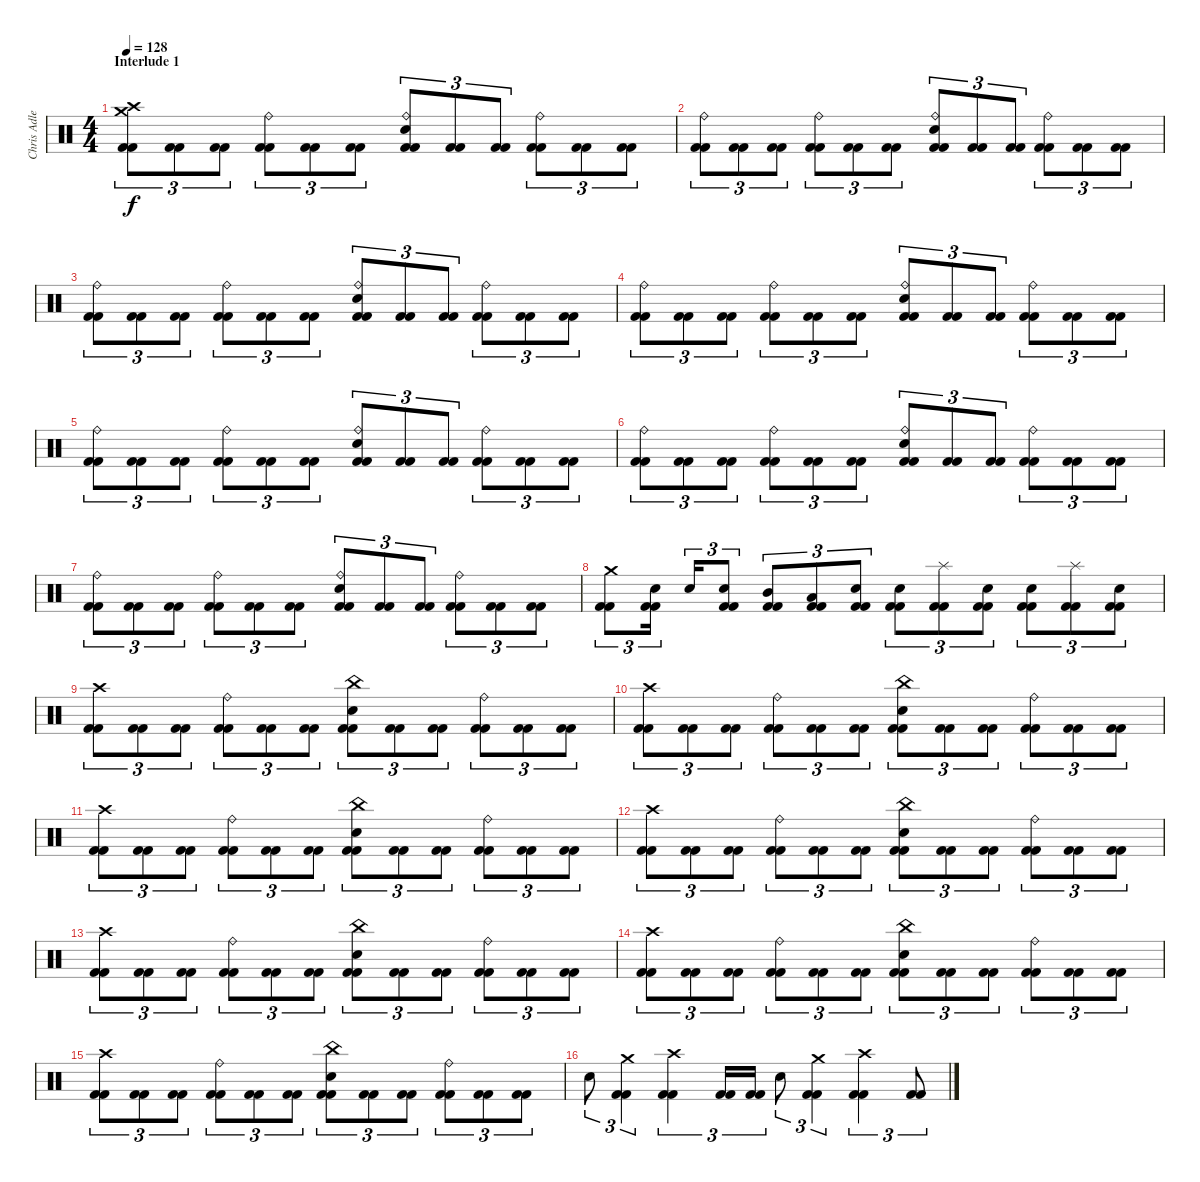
\track ("Chris Adler" "Chris Adle") {instrument percussion}
\staff {score}
\articulation defaults
\ts (4 4)
\section ("" "Interlude 1")
\tempo 128
\clef neutral
\ks c
("Crash medium (hit)" "Crash high (hit)" "Kick (hit) 2" "Kick (hit) 2").8{tu (3 2) dy f} ("Kick (hit) 2" "Kick (hit) 2").8{tu (3 2)} ("Kick (hit) 2" "Kick (hit) 2").8{tu (3 2)} ("Ride (bell)" "Kick (hit) 2" "Kick (hit) 2").8{tu (3 2)} ("Kick (hit) 2" "Kick (hit) 2").8{tu (3 2)} ("Kick (hit) 2" "Kick (hit) 2").8{tu (3 2)} ("Ride (bell)" "Electric Snare (hit)" "Kick (hit) 2" "Kick (hit) 2").8{tu (3 2)} ("Kick (hit) 2" "Kick (hit) 2").8{tu (3 2)} ("Kick (hit) 2" "Kick (hit) 2").8{tu (3 2)} ("Ride (bell)" "Kick (hit) 2" "Kick (hit) 2").8{tu (3 2)} ("Kick (hit) 2" "Kick (hit) 2").8{tu (3 2)} ("Kick (hit) 2" "Kick (hit) 2").8{tu (3 2)} |
("Ride (bell)" "Kick (hit) 2" "Kick (hit) 2").8{tu (3 2)} ("Kick (hit) 2" "Kick (hit) 2").8{tu (3 2)} ("Kick (hit) 2" "Kick (hit) 2").8{tu (3 2)} ("Ride (bell)" "Kick (hit) 2" "Kick (hit) 2").8{tu (3 2)} ("Kick (hit) 2" "Kick (hit) 2").8{tu (3 2)} ("Kick (hit) 2" "Kick (hit) 2").8{tu (3 2)} ("Ride (bell)" "Electric Snare (hit)" "Kick (hit) 2" "Kick (hit) 2").8{tu (3 2)} ("Kick (hit) 2" "Kick (hit) 2").8{tu (3 2)} ("Kick (hit) 2" "Kick (hit) 2").8{tu (3 2)} ("Ride (bell)" "Kick (hit) 2" "Kick (hit) 2").8{tu (3 2)} ("Kick (hit) 2" "Kick (hit) 2").8{tu (3 2)} ("Kick (hit) 2" "Kick (hit) 2").8{tu (3 2)} |
("Ride (bell)" "Kick (hit) 2" "Kick (hit) 2").8{tu (3 2)} ("Kick (hit) 2" "Kick (hit) 2").8{tu (3 2)} ("Kick (hit) 2" "Kick (hit) 2").8{tu (3 2)} ("Ride (bell)" "Kick (hit) 2" "Kick (hit) 2").8{tu (3 2)} ("Kick (hit) 2" "Kick (hit) 2").8{tu (3 2)} ("Kick (hit) 2" "Kick (hit) 2").8{tu (3 2)} ("Ride (bell)" "Electric Snare (hit)" "Kick (hit) 2" "Kick (hit) 2").8{tu (3 2)} ("Kick (hit) 2" "Kick (hit) 2").8{tu (3 2)} ("Kick (hit) 2" "Kick (hit) 2").8{tu (3 2)} ("Ride (bell)" "Kick (hit) 2" "Kick (hit) 2").8{tu (3 2)} ("Kick (hit) 2" "Kick (hit) 2").8{tu (3 2)} ("Kick (hit) 2" "Kick (hit) 2").8{tu (3 2)} |
("Ride (bell)" "Kick (hit) 2" "Kick (hit) 2").8{tu (3 2)} ("Kick (hit) 2" "Kick (hit) 2").8{tu (3 2)} ("Kick (hit) 2" "Kick (hit) 2").8{tu (3 2)} ("Ride (bell)" "Kick (hit) 2" "Kick (hit) 2").8{tu (3 2)} ("Kick (hit) 2" "Kick (hit) 2").8{tu (3 2)} ("Kick (hit) 2" "Kick (hit) 2").8{tu (3 2)} ("Ride (bell)" "Electric Snare (hit)" "Kick (hit) 2" "Kick (hit) 2").8{tu (3 2)} ("Kick (hit) 2" "Kick (hit) 2").8{tu (3 2)} ("Kick (hit) 2" "Kick (hit) 2").8{tu (3 2)} ("Ride (bell)" "Kick (hit) 2" "Kick (hit) 2").8{tu (3 2)} ("Kick (hit) 2" "Kick (hit) 2").8{tu (3 2)} ("Kick (hit) 2" "Kick (hit) 2").8{tu (3 2)} |
("Ride (bell)" "Kick (hit) 2" "Kick (hit) 2").8{tu (3 2)} ("Kick (hit) 2" "Kick (hit) 2").8{tu (3 2)} ("Kick (hit) 2" "Kick (hit) 2").8{tu (3 2)} ("Ride (bell)" "Kick (hit) 2" "Kick (hit) 2").8{tu (3 2)} ("Kick (hit) 2" "Kick (hit) 2").8{tu (3 2)} ("Kick (hit) 2" "Kick (hit) 2").8{tu (3 2)} ("Ride (bell)" "Electric Snare (hit)" "Kick (hit) 2" "Kick (hit) 2").8{tu (3 2)} ("Kick (hit) 2" "Kick (hit) 2").8{tu (3 2)} ("Kick (hit) 2" "Kick (hit) 2").8{tu (3 2)} ("Ride (bell)" "Kick (hit) 2" "Kick (hit) 2").8{tu (3 2)} ("Kick (hit) 2" "Kick (hit) 2").8{tu (3 2)} ("Kick (hit) 2" "Kick (hit) 2").8{tu (3 2)} |
("Ride (bell)" "Kick (hit) 2" "Kick (hit) 2").8{tu (3 2)} ("Kick (hit) 2" "Kick (hit) 2").8{tu (3 2)} ("Kick (hit) 2" "Kick (hit) 2").8{tu (3 2)} ("Ride (bell)" "Kick (hit) 2" "Kick (hit) 2").8{tu (3 2)} ("Kick (hit) 2" "Kick (hit) 2").8{tu (3 2)} ("Kick (hit) 2" "Kick (hit) 2").8{tu (3 2)} ("Ride (bell)" "Electric Snare (hit)" "Kick (hit) 2" "Kick (hit) 2").8{tu (3 2)} ("Kick (hit) 2" "Kick (hit) 2").8{tu (3 2)} ("Kick (hit) 2" "Kick (hit) 2").8{tu (3 2)} ("Ride (bell)" "Kick (hit) 2" "Kick (hit) 2").8{tu (3 2)} ("Kick (hit) 2" "Kick (hit) 2").8{tu (3 2)} ("Kick (hit) 2" "Kick (hit) 2").8{tu (3 2)} |
("Ride (bell)" "Kick (hit) 2" "Kick (hit) 2").8{tu (3 2)} ("Kick (hit) 2" "Kick (hit) 2").8{tu (3 2)} ("Kick (hit) 2" "Kick (hit) 2").8{tu (3 2)} ("Ride (bell)" "Kick (hit) 2" "Kick (hit) 2").8{tu (3 2)} ("Kick (hit) 2" "Kick (hit) 2").8{tu (3 2)} ("Kick (hit) 2" "Kick (hit) 2").8{tu (3 2)} ("Ride (bell)" "Electric Snare (hit)" "Kick (hit) 2" "Kick (hit) 2").8{tu (3 2)} ("Kick (hit) 2" "Kick (hit) 2").8{tu (3 2)} ("Kick (hit) 2" "Kick (hit) 2").8{tu (3 2)} ("Ride (bell)" "Kick (hit) 2" "Kick (hit) 2").8{tu (3 2)} ("Kick (hit) 2" "Kick (hit) 2").8{tu (3 2)} ("Kick (hit) 2" "Kick (hit) 2").8{tu (3 2)} |
("Crash medium (hit)" "Kick (hit) 2" "Kick (hit) 2").8{tu (3 2)} ("Electric Snare (hit)" "Kick (hit) 2" "Kick (hit) 2").16{tu (3 2) beam splitsecondary} "Electric Snare (hit)".16{tu (3 2)} ("Electric Snare (hit)" "Kick (hit) 2" "Kick (hit) 2").8{tu (3 2)} ("Mid Tom (hit)" "Kick (hit) 2" "Kick (hit) 2").8{tu (3 2)} ("Low Tom (hit)" "Kick (hit) 2" "Kick (hit) 2").8{tu (3 2)} ("Electric Snare (hit)" "Kick (hit) 2" "Kick (hit) 2").8{tu (3 2)} ("Electric Snare (hit)" "Kick (hit) 2" "Kick (hit) 2").8{tu (3 2)} ("Splash (hit)" "Kick (hit) 2" "Kick (hit) 2").8{tu (3 2)} ("Electric Snare (hit)" "Kick (hit) 2" "Kick (hit) 2").8{tu (3 2)} ("Electric Snare (hit)" "Kick (hit) 2" "Kick (hit) 2").8{tu (3 2)} ("Splash (hit)" "Kick (hit) 2" "Kick (hit) 2").8{tu (3 2)} ("Electric Snare (hit)" "Kick (hit) 2" "Kick (hit) 2").8{tu (3 2)} |
("Crash high (hit)" "Kick (hit) 2" "Kick (hit) 2").8{tu (3 2)} ("Kick (hit) 2" "Kick (hit) 2").8{tu (3 2)} ("Kick (hit) 2" "Kick (hit) 2").8{tu (3 2)} ("Ride (bell)" "Kick (hit) 2" "Kick (hit) 2").8{tu (3 2)} ("Kick (hit) 2" "Kick (hit) 2").8{tu (3 2)} ("Kick (hit) 2" "Kick (hit) 2").8{tu (3 2)} ("China (hit)" "Electric Snare (hit)" "Kick (hit) 2" "Kick (hit) 2").8{tu (3 2)} ("Kick (hit) 2" "Kick (hit) 2").8{tu (3 2)} ("Kick (hit) 2" "Kick (hit) 2").8{tu (3 2)} ("Ride (bell)" "Kick (hit) 2" "Kick (hit) 2").8{tu (3 2)} ("Kick (hit) 2" "Kick (hit) 2").8{tu (3 2)} ("Kick (hit) 2" "Kick (hit) 2").8{tu (3 2)} |
("Crash high (hit)" "Kick (hit) 2" "Kick (hit) 2").8{tu (3 2)} ("Kick (hit) 2" "Kick (hit) 2").8{tu (3 2)} ("Kick (hit) 2" "Kick (hit) 2").8{tu (3 2)} ("Ride (bell)" "Kick (hit) 2" "Kick (hit) 2").8{tu (3 2)} ("Kick (hit) 2" "Kick (hit) 2").8{tu (3 2)} ("Kick (hit) 2" "Kick (hit) 2").8{tu (3 2)} ("China (hit)" "Electric Snare (hit)" "Kick (hit) 2" "Kick (hit) 2").8{tu (3 2)} ("Kick (hit) 2" "Kick (hit) 2").8{tu (3 2)} ("Kick (hit) 2" "Kick (hit) 2").8{tu (3 2)} ("Ride (bell)" "Kick (hit) 2" "Kick (hit) 2").8{tu (3 2)} ("Kick (hit) 2" "Kick (hit) 2").8{tu (3 2)} ("Kick (hit) 2" "Kick (hit) 2").8{tu (3 2)} |
("Crash high (hit)" "Kick (hit) 2" "Kick (hit) 2").8{tu (3 2)} ("Kick (hit) 2" "Kick (hit) 2").8{tu (3 2)} ("Kick (hit) 2" "Kick (hit) 2").8{tu (3 2)} ("Ride (bell)" "Kick (hit) 2" "Kick (hit) 2").8{tu (3 2)} ("Kick (hit) 2" "Kick (hit) 2").8{tu (3 2)} ("Kick (hit) 2" "Kick (hit) 2").8{tu (3 2)} ("China (hit)" "Electric Snare (hit)" "Kick (hit) 2" "Kick (hit) 2").8{tu (3 2)} ("Kick (hit) 2" "Kick (hit) 2").8{tu (3 2)} ("Kick (hit) 2" "Kick (hit) 2").8{tu (3 2)} ("Ride (bell)" "Kick (hit) 2" "Kick (hit) 2").8{tu (3 2)} ("Kick (hit) 2" "Kick (hit) 2").8{tu (3 2)} ("Kick (hit) 2" "Kick (hit) 2").8{tu (3 2)} |
("Crash high (hit)" "Kick (hit) 2" "Kick (hit) 2").8{tu (3 2)} ("Kick (hit) 2" "Kick (hit) 2").8{tu (3 2)} ("Kick (hit) 2" "Kick (hit) 2").8{tu (3 2)} ("Ride (bell)" "Kick (hit) 2" "Kick (hit) 2").8{tu (3 2)} ("Kick (hit) 2" "Kick (hit) 2").8{tu (3 2)} ("Kick (hit) 2" "Kick (hit) 2").8{tu (3 2)} ("China (hit)" "Electric Snare (hit)" "Kick (hit) 2" "Kick (hit) 2").8{tu (3 2)} ("Kick (hit) 2" "Kick (hit) 2").8{tu (3 2)} ("Kick (hit) 2" "Kick (hit) 2").8{tu (3 2)} ("Ride (bell)" "Kick (hit) 2" "Kick (hit) 2").8{tu (3 2)} ("Kick (hit) 2" "Kick (hit) 2").8{tu (3 2)} ("Kick (hit) 2" "Kick (hit) 2").8{tu (3 2)} |
("Crash high (hit)" "Kick (hit) 2" "Kick (hit) 2").8{tu (3 2)} ("Kick (hit) 2" "Kick (hit) 2").8{tu (3 2)} ("Kick (hit) 2" "Kick (hit) 2").8{tu (3 2)} ("Ride (bell)" "Kick (hit) 2" "Kick (hit) 2").8{tu (3 2)} ("Kick (hit) 2" "Kick (hit) 2").8{tu (3 2)} ("Kick (hit) 2" "Kick (hit) 2").8{tu (3 2)} ("China (hit)" "Electric Snare (hit)" "Kick (hit) 2" "Kick (hit) 2").8{tu (3 2)} ("Kick (hit) 2" "Kick (hit) 2").8{tu (3 2)} ("Kick (hit) 2" "Kick (hit) 2").8{tu (3 2)} ("Ride (bell)" "Kick (hit) 2" "Kick (hit) 2").8{tu (3 2)} ("Kick (hit) 2" "Kick (hit) 2").8{tu (3 2)} ("Kick (hit) 2" "Kick (hit) 2").8{tu (3 2)} |
("Crash high (hit)" "Kick (hit) 2" "Kick (hit) 2").8{tu (3 2)} ("Kick (hit) 2" "Kick (hit) 2").8{tu (3 2)} ("Kick (hit) 2" "Kick (hit) 2").8{tu (3 2)} ("Ride (bell)" "Kick (hit) 2" "Kick (hit) 2").8{tu (3 2)} ("Kick (hit) 2" "Kick (hit) 2").8{tu (3 2)} ("Kick (hit) 2" "Kick (hit) 2").8{tu (3 2)} ("China (hit)" "Electric Snare (hit)" "Kick (hit) 2" "Kick (hit) 2").8{tu (3 2)} ("Kick (hit) 2" "Kick (hit) 2").8{tu (3 2)} ("Kick (hit) 2" "Kick (hit) 2").8{tu (3 2)} ("Ride (bell)" "Kick (hit) 2" "Kick (hit) 2").8{tu (3 2)} ("Kick (hit) 2" "Kick (hit) 2").8{tu (3 2)} ("Kick (hit) 2" "Kick (hit) 2").8{tu (3 2)} |
("Crash high (hit)" "Kick (hit) 2" "Kick (hit) 2").8{tu (3 2)} ("Kick (hit) 2" "Kick (hit) 2").8{tu (3 2)} ("Kick (hit) 2" "Kick (hit) 2").8{tu (3 2)} ("Ride (bell)" "Kick (hit) 2" "Kick (hit) 2").8{tu (3 2)} ("Kick (hit) 2" "Kick (hit) 2").8{tu (3 2)} ("Kick (hit) 2" "Kick (hit) 2").8{tu (3 2)} ("China (hit)" "Electric Snare (hit)" "Kick (hit) 2" "Kick (hit) 2").8{tu (3 2)} ("Kick (hit) 2" "Kick (hit) 2").8{tu (3 2)} ("Kick (hit) 2" "Kick (hit) 2").8{tu (3 2)} ("Ride (bell)" "Kick (hit) 2" "Kick (hit) 2").8{tu (3 2)} ("Kick (hit) 2" "Kick (hit) 2").8{tu (3 2)} ("Kick (hit) 2" "Kick (hit) 2").8{tu (3 2)} |
"Electric Snare (hit)".8{tu (3 2)} ("Crash medium (hit)" "Kick (hit) 2" "Kick (hit) 2").4{tu (3 2)} ("Crash high (hit)" "Kick (hit) 2" "Kick (hit) 2").4{tu (3 2)} ("Kick (hit) 2" "Kick (hit) 2").16{tu (3 2)} ("Kick (hit) 2" "Kick (hit) 2").16{tu (3 2)} "Electric Snare (hit)".8{tu (3 2)} ("Crash medium (hit)" "Kick (hit) 2" "Kick (hit) 2").4{tu (3 2)} ("Crash high (hit)" "Kick (hit) 2" "Kick (hit) 2").4{tu (3 2)} ("Kick (hit) 2" "Kick (hit) 2").8{tu (3 2)}
